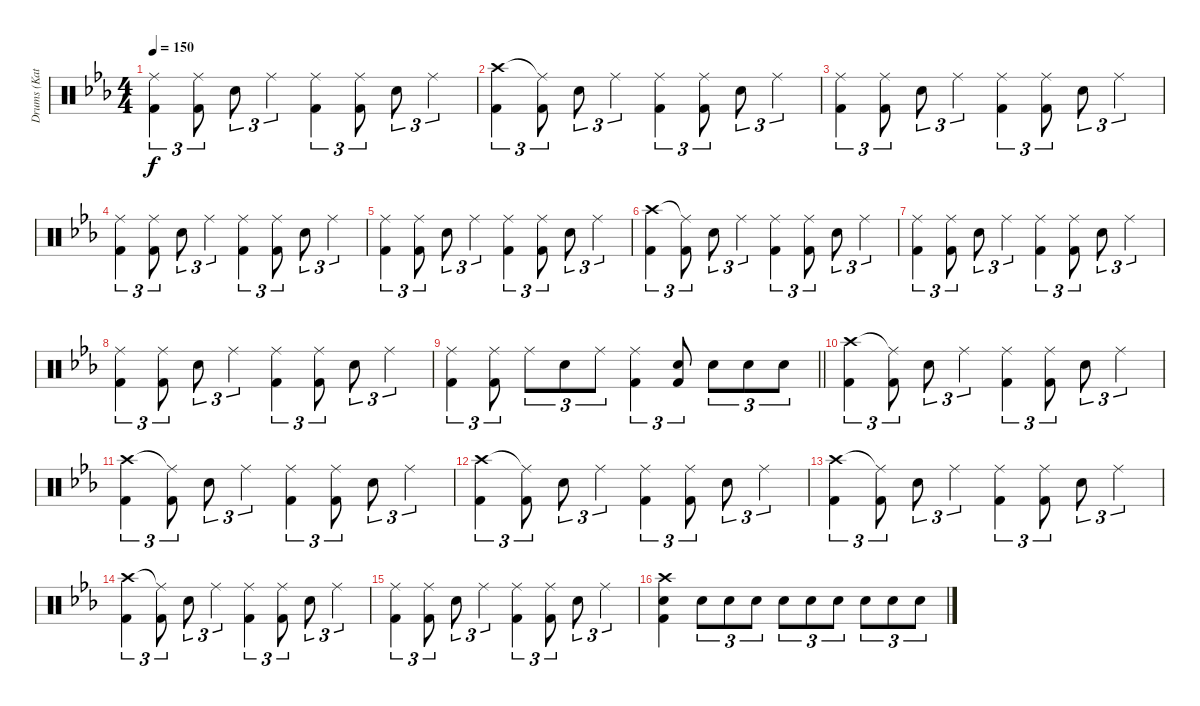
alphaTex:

\track ("Drums (Katsuji)" "Drums (Kat") {instrument percussion}
\staff {score}
\articulation defaults
\ts (4 4)
\tempo 150
\clef neutral
\ks eb
("Ride (middle)" "Kick (hit) 2").4{tu (3 2) dy f} ("Ride (middle)" "Kick (hit) 2").8{tu (3 2)} "Snare (hit) 2".8{tu (3 2)} "Ride (middle)".4{tu (3 2)} ("Ride (middle)" "Kick (hit) 2").4{tu (3 2)} ("Ride (middle)" "Kick (hit) 2").8{tu (3 2)} "Snare (hit) 2".8{tu (3 2)} "Ride (middle)".4{tu (3 2)} |
("Crash high (hit)" "Kick (hit) 2").4{tu (3 2)} ("Ride (middle)"{t} "Kick (hit) 2").8{tu (3 2)} "Snare (hit) 2".8{tu (3 2)} "Ride (middle)".4{tu (3 2)} ("Ride (middle)" "Kick (hit) 2").4{tu (3 2)} ("Ride (middle)" "Kick (hit) 2").8{tu (3 2)} "Snare (hit) 2".8{tu (3 2)} "Ride (middle)".4{tu (3 2)} |
("Ride (middle)" "Kick (hit) 2").4{tu (3 2)} ("Ride (middle)" "Kick (hit) 2").8{tu (3 2)} "Snare (hit) 2".8{tu (3 2)} "Ride (middle)".4{tu (3 2)} ("Ride (middle)" "Kick (hit) 2").4{tu (3 2)} ("Ride (middle)" "Kick (hit) 2").8{tu (3 2)} "Snare (hit) 2".8{tu (3 2)} "Ride (middle)".4{tu (3 2)} |
("Ride (middle)" "Kick (hit) 2").4{tu (3 2)} ("Ride (middle)" "Kick (hit) 2").8{tu (3 2)} "Snare (hit) 2".8{tu (3 2)} "Ride (middle)".4{tu (3 2)} ("Ride (middle)" "Kick (hit) 2").4{tu (3 2)} ("Ride (middle)" "Kick (hit) 2").8{tu (3 2)} "Snare (hit) 2".8{tu (3 2)} "Ride (middle)".4{tu (3 2)} |
("Ride (middle)" "Kick (hit) 2").4{tu (3 2)} ("Ride (middle)" "Kick (hit) 2").8{tu (3 2)} "Snare (hit) 2".8{tu (3 2)} "Ride (middle)".4{tu (3 2)} ("Ride (middle)" "Kick (hit) 2").4{tu (3 2)} ("Ride (middle)" "Kick (hit) 2").8{tu (3 2)} "Snare (hit) 2".8{tu (3 2)} "Ride (middle)".4{tu (3 2)} |
("Crash high (hit)" "Kick (hit) 2").4{tu (3 2)} ("Ride (middle)"{t} "Kick (hit) 2").8{tu (3 2)} "Snare (hit) 2".8{tu (3 2)} "Ride (middle)".4{tu (3 2)} ("Ride (middle)" "Kick (hit) 2").4{tu (3 2)} ("Ride (middle)" "Kick (hit) 2").8{tu (3 2)} "Snare (hit) 2".8{tu (3 2)} "Ride (middle)".4{tu (3 2)} |
("Ride (middle)" "Kick (hit) 2").4{tu (3 2)} ("Ride (middle)" "Kick (hit) 2").8{tu (3 2)} "Snare (hit) 2".8{tu (3 2)} "Ride (middle)".4{tu (3 2)} ("Ride (middle)" "Kick (hit) 2").4{tu (3 2)} ("Ride (middle)" "Kick (hit) 2").8{tu (3 2)} "Snare (hit) 2".8{tu (3 2)} "Ride (middle)".4{tu (3 2)} |
("Ride (middle)" "Kick (hit) 2").4{tu (3 2)} ("Ride (middle)" "Kick (hit) 2").8{tu (3 2)} "Snare (hit) 2".8{tu (3 2)} "Ride (middle)".4{tu (3 2)} ("Ride (middle)" "Kick (hit) 2").4{tu (3 2)} ("Ride (middle)" "Kick (hit) 2").8{tu (3 2)} "Snare (hit) 2".8{tu (3 2)} "Ride (middle)".4{tu (3 2)} |
\barLineRight lightlight
("Ride (middle)" "Kick (hit) 2").4{tu (3 2)} ("Ride (middle)" "Kick (hit) 2").8{tu (3 2)} "Ride (middle)".8{tu (3 2)} "Snare (hit) 2".8{tu (3 2)} "Ride (middle)".8{tu (3 2)} ("Ride (middle)" "Kick (hit) 2").4{tu (3 2)} ("Snare (hit) 2" "Kick (hit) 2").8{tu (3 2)} "Snare (hit) 2".8{tu (3 2)} "Snare (hit) 2".8{tu (3 2)} "Snare (hit) 2".8{tu (3 2)} |
("Crash high (hit)" "Kick (hit) 2").4{tu (3 2)} ("Ride (middle)"{t} "Kick (hit) 2").8{tu (3 2)} "Snare (hit) 2".8{tu (3 2)} "Ride (middle)".4{tu (3 2)} ("Ride (middle)" "Kick (hit) 2").4{tu (3 2)} ("Ride (middle)" "Kick (hit) 2").8{tu (3 2)} "Snare (hit) 2".8{tu (3 2)} "Ride (middle)".4{tu (3 2)} |
("Crash high (hit)" "Kick (hit) 2").4{tu (3 2)} ("Ride (middle)"{t} "Kick (hit) 2").8{tu (3 2)} "Snare (hit) 2".8{tu (3 2)} "Ride (middle)".4{tu (3 2)} ("Ride (middle)" "Kick (hit) 2").4{tu (3 2)} ("Ride (middle)" "Kick (hit) 2").8{tu (3 2)} "Snare (hit) 2".8{tu (3 2)} "Ride (middle)".4{tu (3 2)} |
("Crash high (hit)" "Kick (hit) 2").4{tu (3 2)} ("Ride (middle)"{t} "Kick (hit) 2").8{tu (3 2)} "Snare (hit) 2".8{tu (3 2)} "Ride (middle)".4{tu (3 2)} ("Ride (middle)" "Kick (hit) 2").4{tu (3 2)} ("Ride (middle)" "Kick (hit) 2").8{tu (3 2)} "Snare (hit) 2".8{tu (3 2)} "Ride (middle)".4{tu (3 2)} |
("Crash high (hit)" "Kick (hit) 2").4{tu (3 2)} ("Ride (middle)"{t} "Kick (hit) 2").8{tu (3 2)} "Snare (hit) 2".8{tu (3 2)} "Ride (middle)".4{tu (3 2)} ("Ride (middle)" "Kick (hit) 2").4{tu (3 2)} ("Ride (middle)" "Kick (hit) 2").8{tu (3 2)} "Snare (hit) 2".8{tu (3 2)} "Ride (middle)".4{tu (3 2)} |
("Crash high (hit)" "Kick (hit) 2").4{tu (3 2)} ("Ride (middle)"{t} "Kick (hit) 2").8{tu (3 2)} "Snare (hit) 2".8{tu (3 2)} "Ride (middle)".4{tu (3 2)} ("Ride (middle)" "Kick (hit) 2").4{tu (3 2)} ("Ride (middle)" "Kick (hit) 2").8{tu (3 2)} "Snare (hit) 2".8{tu (3 2)} "Ride (middle)".4{tu (3 2)} |
("Ride (middle)" "Kick (hit) 2").4{tu (3 2)} ("Ride (middle)" "Kick (hit) 2").8{tu (3 2)} "Snare (hit) 2".8{tu (3 2)} "Ride (middle)".4{tu (3 2)} ("Ride (middle)" "Kick (hit) 2").4{tu (3 2)} ("Ride (middle)" "Kick (hit) 2").8{tu (3 2)} "Snare (hit) 2".8{tu (3 2)} "Ride (middle)".4{tu (3 2)} |
("Crash high (hit)" "Snare (hit) 2" "Kick (hit) 2").4 "Snare (hit) 2".8{tu (3 2)} "Snare (hit) 2".8{tu (3 2)} "Snare (hit) 2".8{tu (3 2)} "Snare (hit) 2".8{tu (3 2)} "Snare (hit) 2".8{tu (3 2)} "Snare (hit) 2".8{tu (3 2)} "Snare (hit) 2".8{tu (3 2)} "Snare (hit) 2".8{tu (3 2)} "Snare (hit) 2".8{tu (3 2)}
